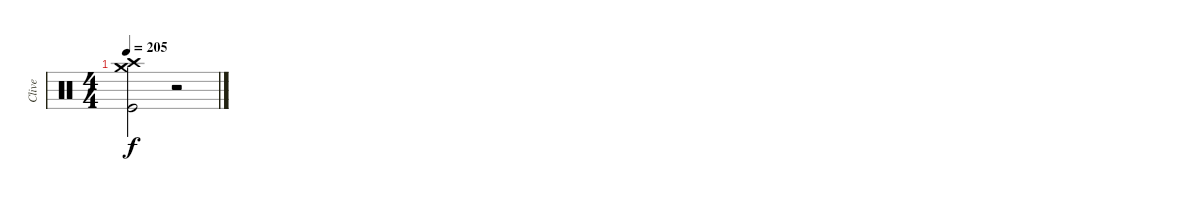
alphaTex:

\track ("Clive" "Clive") {instrument percussion}
\staff {score}
\articulation defaults
\ts (4 4)
\tempo 205
\clef neutral
\ks c
("Crash medium (hit)" "Crash high (hit)" "Kick (hit)").2{dy f} r.2
